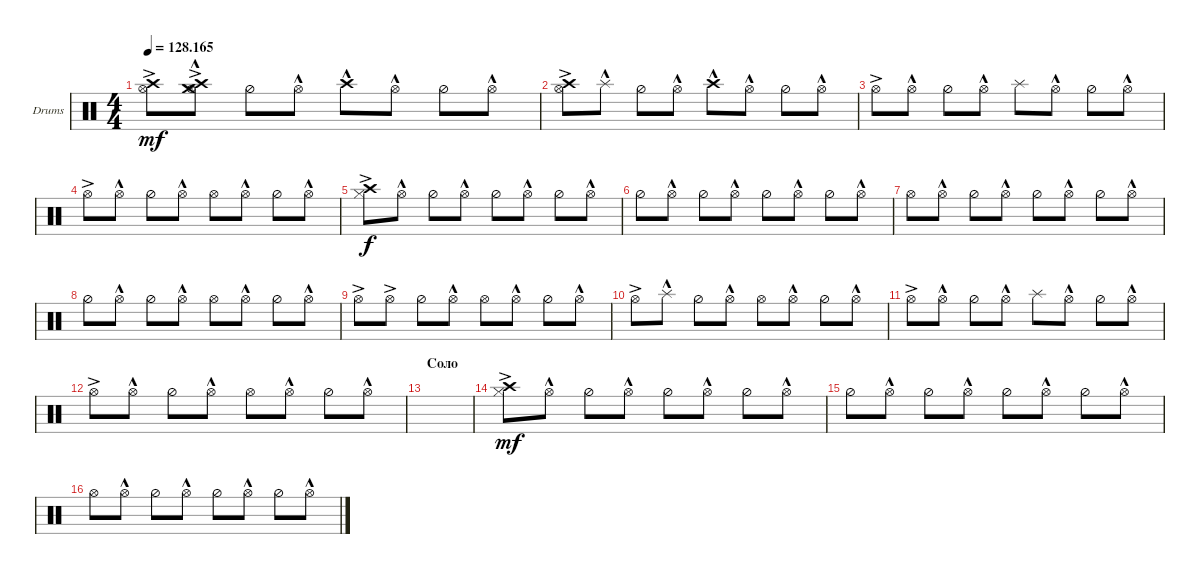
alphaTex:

\defaultSystemsLayout 4
\bracketExtendMode groupsimilarinstruments
\firstSystemTrackNameOrientation horizontal
\otherSystemsTrackNameOrientation horizontal
\track ("Drumkit" "Drums") {instrument percussion}
\staff {score}
\articulation defaults
\ts (4 4)
\tempo
128.165
\accidentals auto
\clef neutral
\ottava regular
\simile none
\ks c
("Hi-Hat (open)"{ac} "Crash high (hit)"{ac}).8{dy mf} ("Hi-Hat (open)"{ac} "Crash medium (hit)"{hac} "Crash high (hit)"{ac}).8 "Hi-Hat (half)".8 "Hi-Hat (open)"{hac}.8 "Crash high (hit)"{hac}.8 "Hi-Hat (open)"{hac}.8 "Hi-Hat (half)".8 "Hi-Hat (open)"{hac}.8 |
("Hi-Hat (open)"{ac} "Crash high (hit)"{ac}).8 "Splash (hit)"{hac}.8 "Hi-Hat (half)".8 "Hi-Hat (open)"{hac}.8 "Crash high (hit)"{hac}.8 "Hi-Hat (open)"{hac}.8 "Hi-Hat (half)".8 "Hi-Hat (open)"{hac}.8 |
"Hi-Hat (open)"{ac}.8 "Hi-Hat (open)"{hac}.8 "Hi-Hat (half)".8 "Hi-Hat (open)"{hac}.8 "Splash (hit)".8 "Hi-Hat (open)"{hac}.8 "Hi-Hat (half)".8 "Hi-Hat (open)"{hac}.8 |
"Hi-Hat (open)"{ac}.8 "Hi-Hat (open)"{hac}.8 "Hi-Hat (half)".8 "Hi-Hat (open)"{hac}.8 "Hi-Hat (open)".8 "Hi-Hat (open)"{hac}.8 "Hi-Hat (half)".8 "Hi-Hat (open)"{hac}.8 |
("Hi-Hat (closed)" "Crash high (hit)"{ac}).8{dy f} "Hi-Hat (open)"{hac}.8 "Hi-Hat (half)".8 "Hi-Hat (open)"{hac}.8 "Hi-Hat (half)".8 "Hi-Hat (open)"{hac}.8 "Hi-Hat (half)".8 "Hi-Hat (open)"{hac}.8 |
"Hi-Hat (half)".8 "Hi-Hat (open)"{hac}.8 "Hi-Hat (half)".8 "Hi-Hat (open)"{hac}.8 "Hi-Hat (half)".8 "Hi-Hat (open)"{hac}.8 "Hi-Hat (half)".8 "Hi-Hat (open)"{hac}.8 |
"Hi-Hat (open)".8 "Hi-Hat (open)"{hac}.8 "Hi-Hat (half)".8 "Hi-Hat (open)"{hac}.8 "Hi-Hat (half)".8 "Hi-Hat (open)"{hac}.8 "Hi-Hat (half)".8 "Hi-Hat (open)"{hac}.8 |
"Hi-Hat (half)".8 "Hi-Hat (open)"{hac}.8 "Hi-Hat (half)".8 "Hi-Hat (open)"{hac}.8 "Hi-Hat (open)".8 "Hi-Hat (open)"{hac}.8 "Hi-Hat (half)".8 "Hi-Hat (open)"{hac}.8 |
"Hi-Hat (open)"{ac}.8 "Hi-Hat (open)"{ac}.8 "Hi-Hat (half)".8 "Hi-Hat (open)"{hac}.8 "Hi-Hat (open)".8 "Hi-Hat (open)"{hac}.8 "Hi-Hat (half)".8 "Hi-Hat (open)"{hac}.8 |
"Hi-Hat (open)"{ac}.8 "Splash (hit)"{hac}.8 "Hi-Hat (half)".8 "Hi-Hat (open)"{hac}.8 "Hi-Hat (open)".8 "Hi-Hat (open)"{hac}.8 "Hi-Hat (half)".8 "Hi-Hat (open)"{hac}.8 |
"Hi-Hat (open)"{ac}.8 "Hi-Hat (open)"{hac}.8 "Hi-Hat (half)".8 "Hi-Hat (open)"{hac}.8 "Splash (hit)".8 "Hi-Hat (open)"{hac}.8 "Hi-Hat (half)".8 "Hi-Hat (open)"{hac}.8 |
"Hi-Hat (open)"{ac}.8 "Hi-Hat (open)"{hac}.8 "Hi-Hat (half)".8 "Hi-Hat (open)"{hac}.8 "Hi-Hat (open)".8 "Hi-Hat (open)"{hac}.8 "Hi-Hat (half)".8 "Hi-Hat (open)"{hac}.8 |
\section ("" "Соло")
|
("Hi-Hat (closed)" "Crash high (hit)"{ac}).8{dy mf} "Hi-Hat (open)"{hac}.8 "Hi-Hat (half)".8 "Hi-Hat (open)"{hac}.8 "Hi-Hat (half)".8 "Hi-Hat (open)"{hac}.8 "Hi-Hat (half)".8 "Hi-Hat (open)"{hac}.8 |
"Hi-Hat (half)".8 "Hi-Hat (open)"{hac}.8 "Hi-Hat (half)".8 "Hi-Hat (open)"{hac}.8 "Hi-Hat (half)".8 "Hi-Hat (open)"{hac}.8 "Hi-Hat (half)".8 "Hi-Hat (open)"{hac}.8 |
"Hi-Hat (open)".8 "Hi-Hat (open)"{hac}.8 "Hi-Hat (half)".8 "Hi-Hat (open)"{hac}.8 "Hi-Hat (half)".8 "Hi-Hat (open)"{hac}.8 "Hi-Hat (half)".8 "Hi-Hat (open)"{hac}.8
